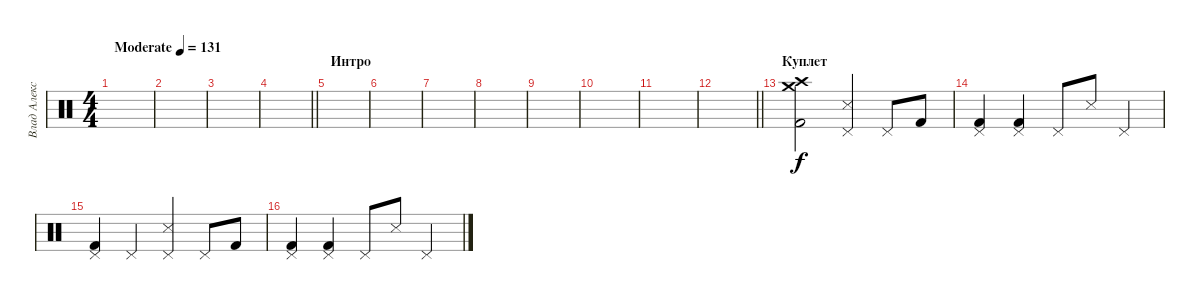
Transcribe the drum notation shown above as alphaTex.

\track ("Влад Алексеенко" "Влад Алекс") {instrument percussion}
\staff {score}
\articulation defaults
\ts (4 4)
\tempo (131 "Moderate")
\clef neutral
\ks c
|
|
|
\barLineRight lightlight
|
\section ("" "Интро")
|
|
|
|
|
|
|
\barLineRight lightlight
|
\section ("" "Куплет")
("Crash medium (hit)" "Crash high (hit)" "Kick (hit) 2").2 ("Pedal Hi-Hat (hit)" "Metronome (hit)").4 "Pedal Hi-Hat (hit)".8 "Kick (hit) 2".8 |
("Pedal Hi-Hat (hit)" "Kick (hit) 2").4 ("Pedal Hi-Hat (hit)" "Kick (hit) 2").4 "Pedal Hi-Hat (hit)".8 "Metronome (hit)".8 "Pedal Hi-Hat (hit)".4 |
("Pedal Hi-Hat (hit)" "Kick (hit) 2").4 "Pedal Hi-Hat (hit)".4 ("Pedal Hi-Hat (hit)" "Metronome (hit)").4 "Pedal Hi-Hat (hit)".8 "Kick (hit) 2".8 |
("Pedal Hi-Hat (hit)" "Kick (hit) 2").4 ("Pedal Hi-Hat (hit)" "Kick (hit) 2").4 "Pedal Hi-Hat (hit)".8 "Metronome (hit)".8 "Pedal Hi-Hat (hit)".4
